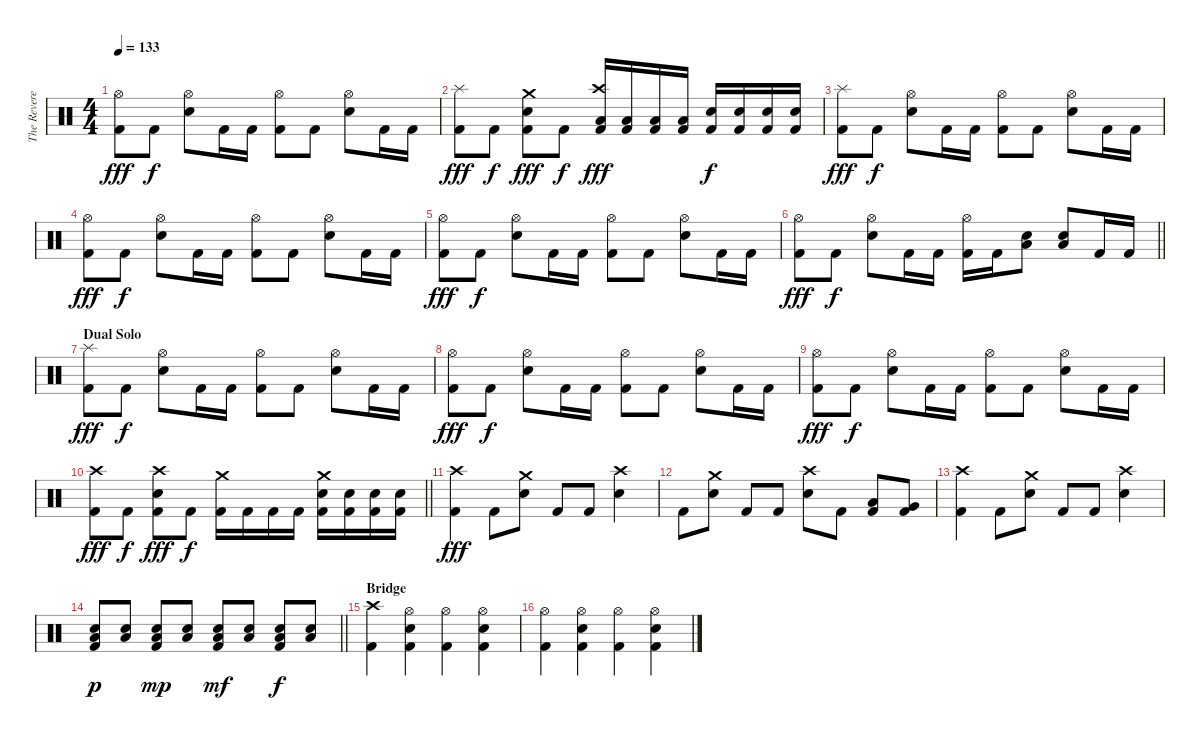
\track ("The Reverend (R.I.P.) [Drums]" "The Revere") {instrument percussion}
\staff {score}
\articulation defaults
\ts (4 4)
\tempo 133
\clef neutral
\ks c
("Hi-Hat (open)" "Kick (hit) 2").8{dy fff} "Kick (hit) 2".8{dy f} ("Hi-Hat (open)" "Electric Snare (hit)").8 "Kick (hit) 2".16 "Kick (hit) 2".16 ("Hi-Hat (open)" "Kick (hit) 2").8 "Kick (hit) 2".8 ("Hi-Hat (open)" "Electric Snare (hit)").8 "Kick (hit) 2".16 "Kick (hit) 2".16 |
("Splash (hit)" "Kick (hit) 2").8{dy fff} "Kick (hit) 2".8{dy f} ("Crash medium (hit)" "Electric Snare (hit)" "Kick (hit) 2").8{dy fff} "Kick (hit) 2".8{dy f} ("Crash high (hit)" "Low Tom (hit)" "Kick (hit) 2").16{dy fff} ("Low Tom (hit)" "Kick (hit) 2").16 ("Low Floor Tom (hit)" "Kick (hit) 2").16 ("Low Floor Tom (hit)" "Kick (hit) 2").16 ("Electric Snare (hit)" "Kick (hit) 2").16{dy f} ("Electric Snare (hit)" "Kick (hit) 2").16 ("Electric Snare (hit)" "Kick (hit) 2").16 ("Electric Snare (hit)" "Kick (hit) 2").16 |
("Splash (hit)" "Kick (hit) 2").8{dy fff} "Kick (hit) 2".8{dy f} ("Hi-Hat (open)" "Electric Snare (hit)").8 "Kick (hit) 2".16 "Kick (hit) 2".16 ("Hi-Hat (open)" "Kick (hit) 2").8 "Kick (hit) 2".8 ("Hi-Hat (open)" "Electric Snare (hit)").8 "Kick (hit) 2".16 "Kick (hit) 2".16 |
("Hi-Hat (open)" "Kick (hit) 2").8{dy fff} "Kick (hit) 2".8{dy f} ("Hi-Hat (open)" "Electric Snare (hit)").8 "Kick (hit) 2".16 "Kick (hit) 2".16 ("Hi-Hat (open)" "Kick (hit) 2").8 "Kick (hit) 2".8 ("Hi-Hat (open)" "Electric Snare (hit)").8 "Kick (hit) 2".16 "Kick (hit) 2".16 |
("Hi-Hat (open)" "Kick (hit) 2").8{dy fff} "Kick (hit) 2".8{dy f} ("Hi-Hat (open)" "Electric Snare (hit)").8 "Kick (hit) 2".16 "Kick (hit) 2".16 ("Hi-Hat (open)" "Kick (hit) 2").8 "Kick (hit) 2".8 ("Hi-Hat (open)" "Electric Snare (hit)").8 "Kick (hit) 2".16 "Kick (hit) 2".16 |
\barLineRight lightlight
("Hi-Hat (open)" "Kick (hit) 2").8{dy fff} "Kick (hit) 2".8{dy f} ("Hi-Hat (open)" "Electric Snare (hit)").8 "Kick (hit) 2".16 "Kick (hit) 2".16 ("Hi-Hat (open)" "Kick (hit) 2").16 "Kick (hit) 2".16 ("Low Floor Tom (hit)" "Electric Snare (hit)").8 ("Low Floor Tom (hit)" "Electric Snare (hit)").8 "Kick (hit) 2".16 "Kick (hit) 2".16 |
\section ("" "Dual Solo")
("Splash (hit)" "Kick (hit) 2").8{dy fff} "Kick (hit) 2".8{dy f} ("Hi-Hat (open)" "Electric Snare (hit)").8 "Kick (hit) 2".16 "Kick (hit) 2".16 ("Hi-Hat (open)" "Kick (hit) 2").8 "Kick (hit) 2".8 ("Hi-Hat (open)" "Electric Snare (hit)").8 "Kick (hit) 2".16 "Kick (hit) 2".16 |
("Hi-Hat (open)" "Kick (hit) 2").8{dy fff} "Kick (hit) 2".8{dy f} ("Hi-Hat (open)" "Electric Snare (hit)").8 "Kick (hit) 2".16 "Kick (hit) 2".16 ("Hi-Hat (open)" "Kick (hit) 2").8 "Kick (hit) 2".8 ("Hi-Hat (open)" "Electric Snare (hit)").8 "Kick (hit) 2".16 "Kick (hit) 2".16 |
("Hi-Hat (open)" "Kick (hit) 2").8{dy fff} "Kick (hit) 2".8{dy f} ("Hi-Hat (open)" "Electric Snare (hit)").8 "Kick (hit) 2".16 "Kick (hit) 2".16 ("Hi-Hat (open)" "Kick (hit) 2").8 "Kick (hit) 2".8 ("Hi-Hat (open)" "Electric Snare (hit)").8 "Kick (hit) 2".16 "Kick (hit) 2".16 |
\barLineRight lightlight
("Crash high (hit)" "Kick (hit) 2").8{dy fff} "Kick (hit) 2".8{dy f} ("Crash high (hit)" "Electric Snare (hit)" "Kick (hit) 2").8{dy fff} "Kick (hit) 2".8{dy f} ("Crash medium (hit)" "Kick (hit) 2").16 "Kick (hit) 2".16 "Kick (hit) 2".16 "Kick (hit) 2".16 ("Crash medium (hit)" "Electric Snare (hit)" "Kick (hit) 2").16 ("Electric Snare (hit)" "Kick (hit) 2").16 ("Electric Snare (hit)" "Kick (hit) 2").16 ("Electric Snare (hit)" "Kick (hit) 2").16 |
("Crash high (hit)" "Kick (hit) 2").4{dy fff} "Kick (hit) 2".8 ("Crash medium (hit)" "Electric Snare (hit)").8 "Kick (hit) 2".8 "Kick (hit) 2".8 ("Crash high (hit)" "Electric Snare (hit)").4 |
"Kick (hit) 2".8 ("Crash medium (hit)" "Electric Snare (hit)").8 "Kick (hit) 2".8 "Kick (hit) 2".8 ("Crash high (hit)" "Electric Snare (hit)").8 "Kick (hit) 2".8 ("Low Tom (hit)" "Kick (hit) 2").8 ("Very Low Tom (hit)" "Kick (hit) 2").8 |
("Crash high (hit)" "Kick (hit) 2").4 "Kick (hit) 2".8 ("Crash medium (hit)" "Electric Snare (hit)").8 "Kick (hit) 2".8 "Kick (hit) 2".8 ("Crash high (hit)" "Electric Snare (hit)").4 |
\barLineRight lightlight
("Low Floor Tom (hit)" "Electric Snare (hit)" "Kick (hit) 2").8{dy p} ("Low Floor Tom (hit)" "Electric Snare (hit)").8 ("Low Floor Tom (hit)" "Electric Snare (hit)" "Kick (hit) 2").8{dy mp} ("Low Floor Tom (hit)" "Electric Snare (hit)").8 ("Low Floor Tom (hit)" "Electric Snare (hit)" "Kick (hit) 2").8{dy mf} ("Low Floor Tom (hit)" "Electric Snare (hit)").8 ("Low Floor Tom (hit)" "Electric Snare (hit)" "Kick (hit) 2").8{dy f} ("Low Floor Tom (hit)" "Electric Snare (hit)").8 |
\section ("" "Bridge")
("Crash high (hit)" "Kick (hit) 2").4 ("Hi-Hat (open)" "Electric Snare (hit)" "Kick (hit) 2").4 ("Hi-Hat (open)" "Kick (hit) 2").4 ("Hi-Hat (open)" "Electric Snare (hit)" "Kick (hit) 2").4 |
("Hi-Hat (open)" "Kick (hit) 2").4 ("Hi-Hat (open)" "Electric Snare (hit)" "Kick (hit) 2").4 ("Hi-Hat (open)" "Kick (hit) 2").4 ("Hi-Hat (open)" "Electric Snare (hit)" "Kick (hit) 2").4
